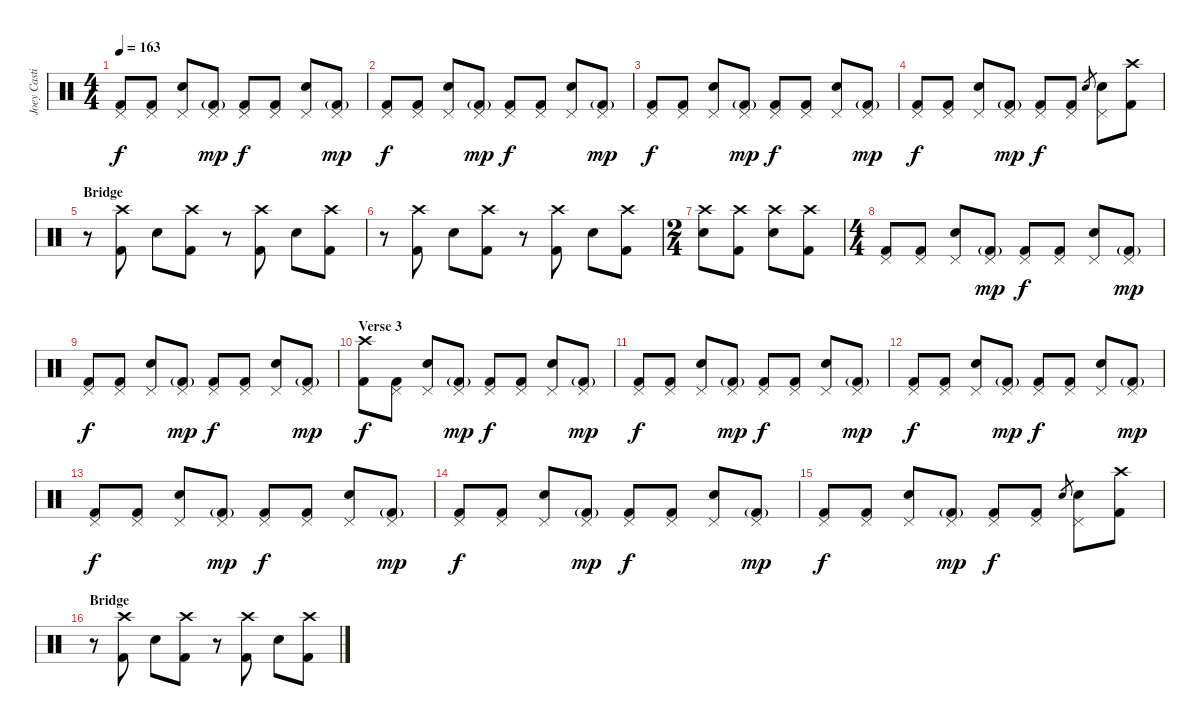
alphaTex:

\track ("Joey Castillo" "Joey Casti") {instrument percussion}
\staff {score}
\articulation defaults
\ts (4 4)
\tempo 163
\clef neutral
\ks c
("Pedal Hi-Hat (hit)" "Kick (hit) 2").8{dy f} ("Pedal Hi-Hat (hit)" "Kick (hit) 2").8 ("Pedal Hi-Hat (hit)" "Electric Snare (hit)").8 ("Pedal Hi-Hat (hit)" "Kick (hit) 2"{g}).8{dy mp} ("Pedal Hi-Hat (hit)" "Kick (hit) 2").8{dy f} ("Pedal Hi-Hat (hit)" "Kick (hit) 2").8 ("Pedal Hi-Hat (hit)" "Electric Snare (hit)").8 ("Pedal Hi-Hat (hit)" "Kick (hit) 2"{g}).8{dy mp} |
("Pedal Hi-Hat (hit)" "Kick (hit) 2").8{dy f} ("Pedal Hi-Hat (hit)" "Kick (hit) 2").8 ("Pedal Hi-Hat (hit)" "Electric Snare (hit)").8 ("Pedal Hi-Hat (hit)" "Kick (hit) 2"{g}).8{dy mp} ("Pedal Hi-Hat (hit)" "Kick (hit) 2").8{dy f} ("Pedal Hi-Hat (hit)" "Kick (hit) 2").8 ("Pedal Hi-Hat (hit)" "Electric Snare (hit)").8 ("Pedal Hi-Hat (hit)" "Kick (hit) 2"{g}).8{dy mp} |
("Pedal Hi-Hat (hit)" "Kick (hit) 2").8{dy f} ("Pedal Hi-Hat (hit)" "Kick (hit) 2").8 ("Pedal Hi-Hat (hit)" "Electric Snare (hit)").8 ("Pedal Hi-Hat (hit)" "Kick (hit) 2"{g}).8{dy mp} ("Pedal Hi-Hat (hit)" "Kick (hit) 2").8{dy f} ("Pedal Hi-Hat (hit)" "Kick (hit) 2").8 ("Pedal Hi-Hat (hit)" "Electric Snare (hit)").8 ("Pedal Hi-Hat (hit)" "Kick (hit) 2"{g}).8{dy mp} |
("Pedal Hi-Hat (hit)" "Kick (hit) 2").8{dy f} ("Pedal Hi-Hat (hit)" "Kick (hit) 2").8 ("Pedal Hi-Hat (hit)" "Electric Snare (hit)").8 ("Pedal Hi-Hat (hit)" "Kick (hit) 2"{g}).8{dy mp} ("Pedal Hi-Hat (hit)" "Kick (hit) 2").8{dy f} ("Pedal Hi-Hat (hit)" "Kick (hit) 2").8 "Electric Snare (hit)".8{gr} ("Pedal Hi-Hat (hit)" "Electric Snare (hit)").8 ("Crash high (hit)" "Kick (hit) 2").8 |
\section ("" "Bridge")
r.8 ("Crash high (hit)" "Kick (hit) 2").8 "Electric Snare (hit)".8 ("Crash high (hit)" "Kick (hit) 2").8 r.8 ("Crash high (hit)" "Kick (hit) 2").8 "Electric Snare (hit)".8 ("Crash high (hit)" "Kick (hit) 2").8 |
r.8 ("Crash high (hit)" "Kick (hit) 2").8 "Electric Snare (hit)".8 ("Crash high (hit)" "Kick (hit) 2").8 r.8 ("Crash high (hit)" "Kick (hit) 2").8 "Electric Snare (hit)".8 ("Crash high (hit)" "Kick (hit) 2").8 |
\ts (2 4)
("Crash high (hit)" "Electric Snare (hit)").8 ("Crash high (hit)" "Kick (hit) 2").8 ("Crash high (hit)" "Electric Snare (hit)").8 ("Crash high (hit)" "Kick (hit) 2").8 |
\ts (4 4)
("Pedal Hi-Hat (hit)" "Kick (hit) 2").8 ("Pedal Hi-Hat (hit)" "Kick (hit) 2").8 ("Pedal Hi-Hat (hit)" "Electric Snare (hit)").8 ("Pedal Hi-Hat (hit)" "Kick (hit) 2"{g}).8{dy mp} ("Pedal Hi-Hat (hit)" "Kick (hit) 2").8{dy f} ("Pedal Hi-Hat (hit)" "Kick (hit) 2").8 ("Pedal Hi-Hat (hit)" "Electric Snare (hit)").8 ("Pedal Hi-Hat (hit)" "Kick (hit) 2"{g}).8{dy mp} |
("Pedal Hi-Hat (hit)" "Kick (hit) 2").8{dy f} ("Pedal Hi-Hat (hit)" "Kick (hit) 2").8 ("Pedal Hi-Hat (hit)" "Electric Snare (hit)").8 ("Pedal Hi-Hat (hit)" "Kick (hit) 2"{g}).8{dy mp} ("Pedal Hi-Hat (hit)" "Kick (hit) 2").8{dy f} ("Pedal Hi-Hat (hit)" "Kick (hit) 2").8 ("Pedal Hi-Hat (hit)" "Electric Snare (hit)").8 ("Pedal Hi-Hat (hit)" "Kick (hit) 2"{g}).8{dy mp} |
\section ("" "Verse 3")
("Crash high (hit)" "Kick (hit) 2").8{dy f} ("Pedal Hi-Hat (hit)" "Kick (hit) 2").8 ("Pedal Hi-Hat (hit)" "Electric Snare (hit)").8 ("Pedal Hi-Hat (hit)" "Kick (hit) 2"{g}).8{dy mp} ("Pedal Hi-Hat (hit)" "Kick (hit) 2").8{dy f} ("Pedal Hi-Hat (hit)" "Kick (hit) 2").8 ("Pedal Hi-Hat (hit)" "Electric Snare (hit)").8 ("Pedal Hi-Hat (hit)" "Kick (hit) 2"{g}).8{dy mp} |
("Pedal Hi-Hat (hit)" "Kick (hit) 2").8{dy f} ("Pedal Hi-Hat (hit)" "Kick (hit) 2").8 ("Pedal Hi-Hat (hit)" "Electric Snare (hit)").8 ("Pedal Hi-Hat (hit)" "Kick (hit) 2"{g}).8{dy mp} ("Pedal Hi-Hat (hit)" "Kick (hit) 2").8{dy f} ("Pedal Hi-Hat (hit)" "Kick (hit) 2").8 ("Pedal Hi-Hat (hit)" "Electric Snare (hit)").8 ("Pedal Hi-Hat (hit)" "Kick (hit) 2"{g}).8{dy mp} |
("Pedal Hi-Hat (hit)" "Kick (hit) 2").8{dy f} ("Pedal Hi-Hat (hit)" "Kick (hit) 2").8 ("Pedal Hi-Hat (hit)" "Electric Snare (hit)").8 ("Pedal Hi-Hat (hit)" "Kick (hit) 2"{g}).8{dy mp} ("Pedal Hi-Hat (hit)" "Kick (hit) 2").8{dy f} ("Pedal Hi-Hat (hit)" "Kick (hit) 2").8 ("Pedal Hi-Hat (hit)" "Electric Snare (hit)").8 ("Pedal Hi-Hat (hit)" "Kick (hit) 2"{g}).8{dy mp} |
("Pedal Hi-Hat (hit)" "Kick (hit) 2").8{dy f} ("Pedal Hi-Hat (hit)" "Kick (hit) 2").8 ("Pedal Hi-Hat (hit)" "Electric Snare (hit)").8 ("Pedal Hi-Hat (hit)" "Kick (hit) 2"{g}).8{dy mp} ("Pedal Hi-Hat (hit)" "Kick (hit) 2").8{dy f} ("Pedal Hi-Hat (hit)" "Kick (hit) 2").8 ("Pedal Hi-Hat (hit)" "Electric Snare (hit)").8 ("Pedal Hi-Hat (hit)" "Kick (hit) 2"{g}).8{dy mp} |
("Pedal Hi-Hat (hit)" "Kick (hit) 2").8{dy f} ("Pedal Hi-Hat (hit)" "Kick (hit) 2").8 ("Pedal Hi-Hat (hit)" "Electric Snare (hit)").8 ("Pedal Hi-Hat (hit)" "Kick (hit) 2"{g}).8{dy mp} ("Pedal Hi-Hat (hit)" "Kick (hit) 2").8{dy f} ("Pedal Hi-Hat (hit)" "Kick (hit) 2").8 ("Pedal Hi-Hat (hit)" "Electric Snare (hit)").8 ("Pedal Hi-Hat (hit)" "Kick (hit) 2"{g}).8{dy mp} |
("Pedal Hi-Hat (hit)" "Kick (hit) 2").8{dy f} ("Pedal Hi-Hat (hit)" "Kick (hit) 2").8 ("Pedal Hi-Hat (hit)" "Electric Snare (hit)").8 ("Pedal Hi-Hat (hit)" "Kick (hit) 2"{g}).8{dy mp} ("Pedal Hi-Hat (hit)" "Kick (hit) 2").8{dy f} ("Pedal Hi-Hat (hit)" "Kick (hit) 2").8 "Electric Snare (hit)".8{gr} ("Pedal Hi-Hat (hit)" "Electric Snare (hit)").8 ("Crash high (hit)" "Kick (hit) 2").8 |
\section ("" "Bridge")
r.8 ("Crash high (hit)" "Kick (hit) 2").8 "Electric Snare (hit)".8 ("Crash high (hit)" "Kick (hit) 2").8 r.8 ("Crash high (hit)" "Kick (hit) 2").8 "Electric Snare (hit)".8 ("Crash high (hit)" "Kick (hit) 2").8
